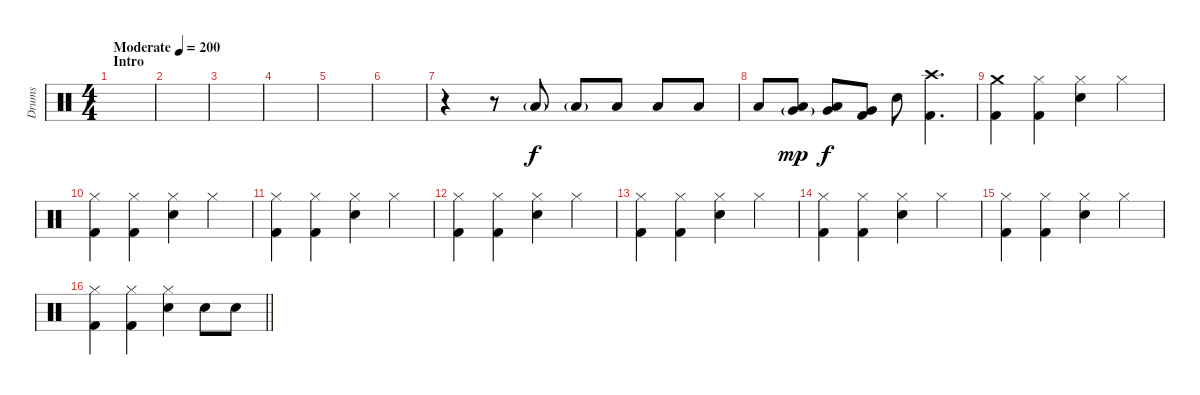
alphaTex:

\track ("Drums" "Drums") {instrument percussion}
\staff {score}
\articulation defaults
\ts (4 4)
\section ("" "Intro")
\tempo (200 "Moderate")
\clef neutral
\ks c
|
|
|
|
|
|
r.4 r.8 "Low Floor Tom (hit)"{g}.8 "Low Floor Tom (hit)"{g}.8 "Low Floor Tom (hit)".8{dy f} "Low Floor Tom (hit)".8 "Low Floor Tom (hit)".8 |
"Low Floor Tom (hit)".8 ("Very Low Tom (hit)"{g} "Low Floor Tom (hit)").8{dy mp} ("Very Low Tom (hit)" "Low Floor Tom (hit)").8{dy f} ("Very Low Tom (hit)" "Kick (hit) 2").8 "Electric Snare (hit)".8 ("Crash high (hit)" "Kick (hit) 2").4{d} |
("Crash medium (hit)" "Kick (hit) 2").4 ("Hi-Hat (closed)" "Kick (hit) 2").4 ("Hi-Hat (closed)" "Electric Snare (hit)").4 "Hi-Hat (closed)".4 |
("Hi-Hat (closed)" "Kick (hit) 2").4 ("Hi-Hat (closed)" "Kick (hit) 2").4 ("Hi-Hat (closed)" "Electric Snare (hit)").4 "Hi-Hat (closed)".4 |
("Hi-Hat (closed)" "Kick (hit) 2").4 ("Hi-Hat (closed)" "Kick (hit) 2").4 ("Hi-Hat (closed)" "Electric Snare (hit)").4 "Hi-Hat (closed)".4 |
("Hi-Hat (closed)" "Kick (hit) 2").4 ("Hi-Hat (closed)" "Kick (hit) 2").4 ("Hi-Hat (closed)" "Electric Snare (hit)").4 "Hi-Hat (closed)".4 |
("Hi-Hat (closed)" "Kick (hit) 2").4 ("Hi-Hat (closed)" "Kick (hit) 2").4 ("Hi-Hat (closed)" "Electric Snare (hit)").4 "Hi-Hat (closed)".4 |
("Hi-Hat (closed)" "Kick (hit) 2").4 ("Hi-Hat (closed)" "Kick (hit) 2").4 ("Hi-Hat (closed)" "Electric Snare (hit)").4 "Hi-Hat (closed)".4 |
("Hi-Hat (closed)" "Kick (hit) 2").4 ("Hi-Hat (closed)" "Kick (hit) 2").4 ("Hi-Hat (closed)" "Electric Snare (hit)").4 "Hi-Hat (closed)".4 |
\barLineRight lightlight
("Hi-Hat (closed)" "Kick (hit) 2").4 ("Hi-Hat (closed)" "Kick (hit) 2").4 ("Hi-Hat (closed)" "Electric Snare (hit)").4 "Electric Snare (hit)".8 "Electric Snare (hit)".8
